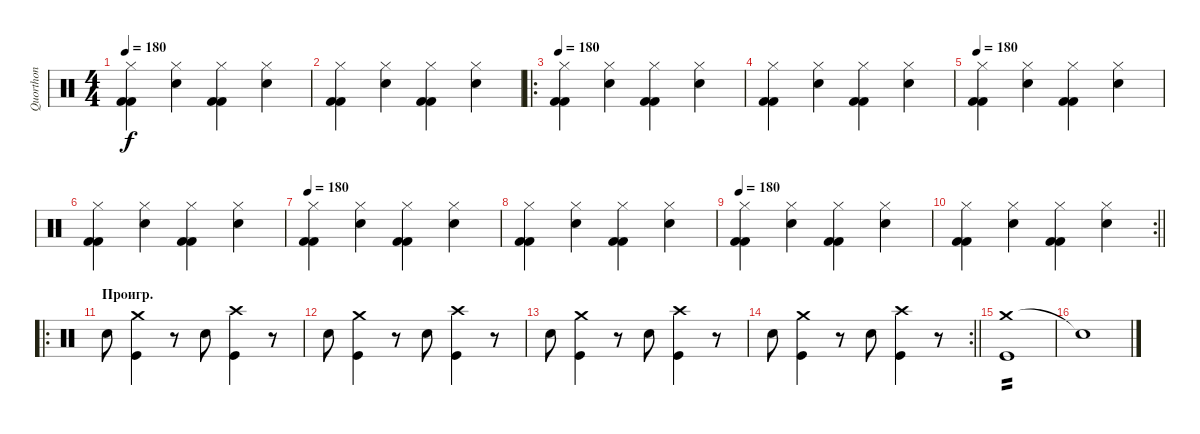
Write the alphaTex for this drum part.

\track ("Quorthon" "Quorthon") {instrument percussion}
\staff {score}
\articulation defaults
\ts (4 4)
\tempo 180
\clef neutral
\ks c
("Hi-Hat (closed)" "Kick (hit) 2" "Kick (hit) 2").4{dy f} ("Hi-Hat (closed)" "Electric Snare (hit)").4 ("Hi-Hat (closed)" "Kick (hit) 2" "Kick (hit) 2").4 ("Hi-Hat (closed)" "Electric Snare (hit)").4 |
("Hi-Hat (closed)" "Kick (hit) 2" "Kick (hit) 2").4 ("Hi-Hat (closed)" "Electric Snare (hit)").4 ("Hi-Hat (closed)" "Kick (hit) 2" "Kick (hit) 2").4 ("Hi-Hat (closed)" "Electric Snare (hit)").4 |
\ro
\tempo 180
("Hi-Hat (closed)" "Kick (hit) 2" "Kick (hit) 2").4 ("Hi-Hat (closed)" "Electric Snare (hit)").4 ("Hi-Hat (closed)" "Kick (hit) 2" "Kick (hit) 2").4 ("Hi-Hat (closed)" "Electric Snare (hit)").4 |
("Hi-Hat (closed)" "Kick (hit) 2" "Kick (hit) 2").4 ("Hi-Hat (closed)" "Electric Snare (hit)").4 ("Hi-Hat (closed)" "Kick (hit) 2" "Kick (hit) 2").4 ("Hi-Hat (closed)" "Electric Snare (hit)").4 |
\tempo 180
("Hi-Hat (closed)" "Kick (hit) 2" "Kick (hit) 2").4 ("Hi-Hat (closed)" "Electric Snare (hit)").4 ("Hi-Hat (closed)" "Kick (hit) 2" "Kick (hit) 2").4 ("Hi-Hat (closed)" "Electric Snare (hit)").4 |
("Hi-Hat (closed)" "Kick (hit) 2" "Kick (hit) 2").4 ("Hi-Hat (closed)" "Electric Snare (hit)").4 ("Hi-Hat (closed)" "Kick (hit) 2" "Kick (hit) 2").4 ("Hi-Hat (closed)" "Electric Snare (hit)").4 |
\tempo 180
("Hi-Hat (closed)" "Kick (hit) 2" "Kick (hit) 2").4 ("Hi-Hat (closed)" "Electric Snare (hit)").4 ("Hi-Hat (closed)" "Kick (hit) 2" "Kick (hit) 2").4 ("Hi-Hat (closed)" "Electric Snare (hit)").4 |
("Hi-Hat (closed)" "Kick (hit) 2" "Kick (hit) 2").4 ("Hi-Hat (closed)" "Electric Snare (hit)").4 ("Hi-Hat (closed)" "Kick (hit) 2" "Kick (hit) 2").4 ("Hi-Hat (closed)" "Electric Snare (hit)").4 |
\tempo 180
("Hi-Hat (closed)" "Kick (hit) 2" "Kick (hit) 2").4 ("Hi-Hat (closed)" "Electric Snare (hit)").4 ("Hi-Hat (closed)" "Kick (hit) 2" "Kick (hit) 2").4 ("Hi-Hat (closed)" "Electric Snare (hit)").4 |
\rc 2
\barLineRight lightlight
("Hi-Hat (closed)" "Kick (hit) 2" "Kick (hit) 2").4 ("Hi-Hat (closed)" "Electric Snare (hit)").4 ("Hi-Hat (closed)" "Kick (hit) 2" "Kick (hit) 2").4 ("Hi-Hat (closed)" "Electric Snare (hit)").4 |
\ro
\section ("" "Проигр.")
"Electric Snare (hit)".8 ("Crash medium (hit)" "Kick (hit)").4 r.8 "Electric Snare (hit)".8 ("Crash high (hit)" "Kick (hit)").4 r.8 |
"Electric Snare (hit)".8 ("Crash medium (hit)" "Kick (hit)").4 r.8 "Electric Snare (hit)".8 ("Crash high (hit)" "Kick (hit)").4 r.8 |
"Electric Snare (hit)".8 ("Crash medium (hit)" "Kick (hit)").4 r.8 "Electric Snare (hit)".8 ("Crash high (hit)" "Kick (hit)").4 r.8 |
\rc 2
\barLineRight lightlight "Electric Snare (hit)".8
("Crash medium (hit)" "Kick (hit)").4 r.8 "Electric Snare (hit)".8 ("Crash high (hit)" "Kick (hit)").4 r.8 |
("Crash medium (hit)" "Kick (hit)").1{tp 2} |
"Snare (hit)"{t}.1
